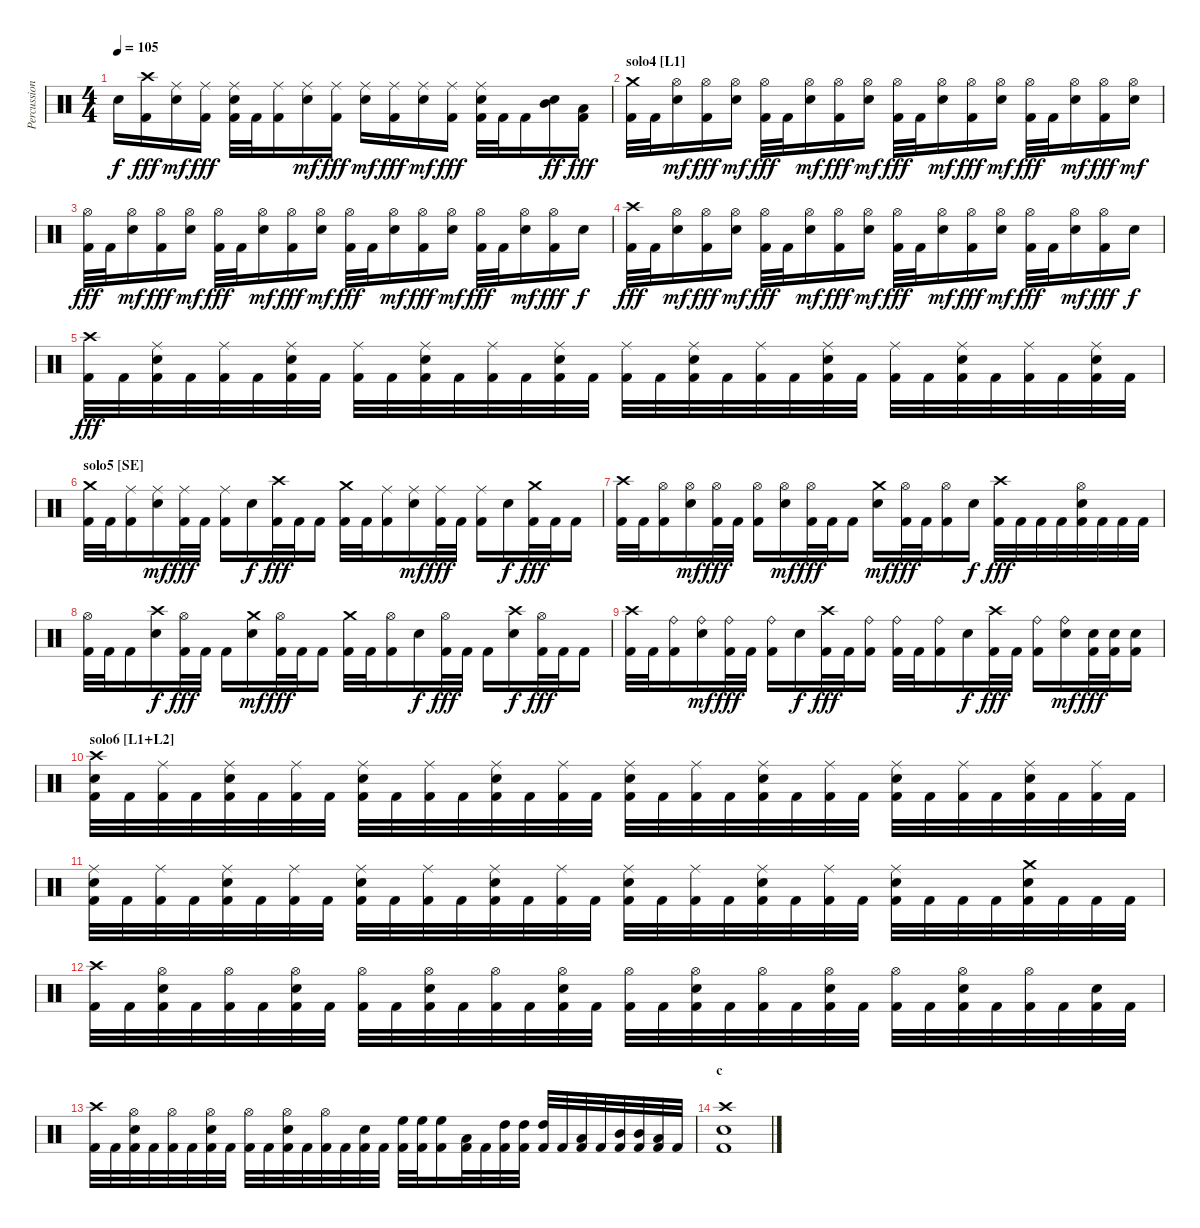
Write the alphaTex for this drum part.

\track ("Percussion" "Percussion") {instrument percussion}
\staff {score}
\articulation defaults
\ts (4 4)
\tempo 105
\clef neutral
\ks c "Snare (hit) 2".16{dy f}
("Crash high (hit)" "Kick (hit) 2").16{dy fff} ("Ride (middle)" "Snare (hit) 2").16{dy mf} ("Ride (middle)" "Kick (hit) 2").16{dy fff} ("Ride (middle)" "Snare (hit) 2" "Kick (hit) 2").32 "Kick (hit) 2".32 ("Ride (middle)" "Kick (hit) 2").16 ("Ride (middle)" "Snare (hit) 2").16{dy mf} ("Ride (middle)" "Kick (hit) 2").16{dy fff} ("Ride (middle)" "Snare (hit) 2").16{dy mf} ("Ride (middle)" "Kick (hit) 2").16{dy fff} ("Ride (middle)" "Snare (hit) 2").16{dy mf} ("Ride (middle)" "Kick (hit) 2").16{dy fff} ("Ride (middle)" "Snare (hit) 2" "Kick (hit) 2").32 "Kick (hit) 2".32 "Kick (hit) 2".16 ("Mid Tom (hit)" "Snare (hit) 2").16{dy ff} ("Low Tom (hit)" "Kick (hit) 2").16{dy fff} |
\section ("" "solo4 [L1]")
("Crash medium (hit)" "Kick (hit) 2").32 "Kick (hit) 2".32 ("Hi-Hat (open)" "Snare (hit) 2").16{dy mf} ("Hi-Hat (open)" "Kick (hit) 2").16{dy fff} ("Hi-Hat (open)" "Snare (hit) 2").16{dy mf} ("Hi-Hat (open)" "Kick (hit) 2").32{dy fff} "Kick (hit) 2".32 ("Hi-Hat (open)" "Snare (hit) 2").16{dy mf} ("Hi-Hat (open)" "Kick (hit) 2").16{dy fff} ("Hi-Hat (open)" "Snare (hit) 2").16{dy mf} ("Hi-Hat (open)" "Kick (hit) 2").32{dy fff} "Kick (hit) 2".32 ("Hi-Hat (open)" "Snare (hit) 2").16{dy mf} ("Hi-Hat (open)" "Kick (hit) 2").16{dy fff} ("Hi-Hat (open)" "Snare (hit) 2").16{dy mf} ("Hi-Hat (open)" "Kick (hit) 2").32{dy fff} "Kick (hit) 2".32 ("Hi-Hat (open)" "Snare (hit) 2").16{dy mf} ("Hi-Hat (open)" "Kick (hit) 2").16{dy fff} ("Hi-Hat (open)" "Snare (hit) 2").16{dy mf} |
("Hi-Hat (open)" "Kick (hit) 2").32{dy fff} "Kick (hit) 2".32 ("Hi-Hat (open)" "Snare (hit) 2").16{dy mf} ("Hi-Hat (open)" "Kick (hit) 2").16{dy fff} ("Hi-Hat (open)" "Snare (hit) 2").16{dy mf} ("Hi-Hat (open)" "Kick (hit) 2").32{dy fff} "Kick (hit) 2".32 ("Hi-Hat (open)" "Snare (hit) 2").16{dy mf} ("Hi-Hat (open)" "Kick (hit) 2").16{dy fff} ("Hi-Hat (open)" "Snare (hit) 2").16{dy mf} ("Hi-Hat (open)" "Kick (hit) 2").32{dy fff} "Kick (hit) 2".32 ("Hi-Hat (open)" "Snare (hit) 2").16{dy mf} ("Hi-Hat (open)" "Kick (hit) 2").16{dy fff} ("Hi-Hat (open)" "Snare (hit) 2").16{dy mf} ("Hi-Hat (open)" "Kick (hit) 2").32{dy fff} "Kick (hit) 2".32 ("Hi-Hat (open)" "Snare (hit) 2").16{dy mf} ("Hi-Hat (open)" "Kick (hit) 2").16{dy fff} "Snare (hit) 2".16{dy f} |
("Crash high (hit)" "Kick (hit) 2").32{dy fff} "Kick (hit) 2".32 ("Hi-Hat (open)" "Snare (hit) 2").16{dy mf} ("Hi-Hat (open)" "Kick (hit) 2").16{dy fff} ("Hi-Hat (open)" "Snare (hit) 2").16{dy mf} ("Hi-Hat (open)" "Kick (hit) 2").32{dy fff} "Kick (hit) 2".32 ("Hi-Hat (open)" "Snare (hit) 2").16{dy mf} ("Hi-Hat (open)" "Kick (hit) 2").16{dy fff} ("Hi-Hat (open)" "Snare (hit) 2").16{dy mf} ("Hi-Hat (open)" "Kick (hit) 2").32{dy fff} "Kick (hit) 2".32 ("Hi-Hat (open)" "Snare (hit) 2").16{dy mf} ("Hi-Hat (open)" "Kick (hit) 2").16{dy fff} ("Hi-Hat (open)" "Snare (hit) 2").16{dy mf} ("Hi-Hat (open)" "Kick (hit) 2").32{dy fff} "Kick (hit) 2".32 ("Hi-Hat (open)" "Snare (hit) 2").16{dy mf} ("Hi-Hat (open)" "Kick (hit) 2").16{dy fff} "Snare (hit) 2".16{dy f} |
("Crash high (hit)" "Kick (hit) 2").32{dy fff} "Kick (hit) 2".32 ("Ride (middle)" "Snare (hit) 2" "Kick (hit) 2").32 "Kick (hit) 2".32 ("Ride (middle)" "Kick (hit) 2").32 "Kick (hit) 2".32 ("Ride (middle)" "Snare (hit) 2" "Kick (hit) 2").32 "Kick (hit) 2".32 ("Ride (middle)" "Kick (hit) 2").32 "Kick (hit) 2".32 ("Ride (middle)" "Snare (hit) 2" "Kick (hit) 2").32 "Kick (hit) 2".32 ("Ride (middle)" "Kick (hit) 2").32 "Kick (hit) 2".32 ("Ride (middle)" "Snare (hit) 2" "Kick (hit) 2").32 "Kick (hit) 2".32 ("Ride (middle)" "Kick (hit) 2").32 "Kick (hit) 2".32 ("Ride (middle)" "Snare (hit) 2" "Kick (hit) 2").32 "Kick (hit) 2".32 ("Ride (middle)" "Kick (hit) 2").32 "Kick (hit) 2".32 ("Ride (middle)" "Snare (hit) 2" "Kick (hit) 2").32 "Kick (hit) 2".32 ("Ride (middle)" "Kick (hit) 2").32 "Kick (hit) 2".32 ("Ride (middle)" "Snare (hit) 2" "Kick (hit) 2").32 "Kick (hit) 2".32 ("Ride (middle)" "Kick (hit) 2").32 "Kick (hit) 2".32 ("Ride (middle)" "Snare (hit) 2" "Kick (hit) 2").32 "Kick (hit) 2".32 |
\section ("" "solo5 [SE]")
("Crash medium (hit)" "Kick (hit) 2").32 "Kick (hit) 2".32 ("Ride (middle)" "Kick (hit) 2").16 ("Ride (middle)" "Snare (hit) 2").16{dy mf} ("Ride (middle)" "Kick (hit) 2").32{dy fff} "Kick (hit) 2".32 ("Ride (middle)" "Kick (hit) 2").16 "Snare (hit) 2".16{dy f} ("Crash high (hit)" "Kick (hit) 2").32{dy fff} "Kick (hit) 2".32 "Kick (hit) 2".16 ("Crash medium (hit)" "Kick (hit) 2").32 "Kick (hit) 2".32 ("Ride (middle)" "Kick (hit) 2").16 ("Ride (middle)" "Snare (hit) 2").16{dy mf} ("Ride (middle)" "Kick (hit) 2").32{dy fff} "Kick (hit) 2".32 ("Ride (middle)" "Kick (hit) 2").16 "Snare (hit) 2".16{dy f} ("Crash medium (hit)" "Kick (hit) 2").32{dy fff} "Kick (hit) 2".32 "Kick (hit) 2".16 |
("Crash high (hit)" "Kick (hit) 2").32 "Kick (hit) 2".32 ("Hi-Hat (open)" "Kick (hit) 2").16 ("Hi-Hat (open)" "Snare (hit) 2").16{dy mf} ("Hi-Hat (open)" "Kick (hit) 2").32{dy fff} "Kick (hit) 2".32 ("Hi-Hat (open)" "Kick (hit) 2").16 ("Hi-Hat (open)" "Snare (hit) 2").16{dy mf} ("Hi-Hat (open)" "Kick (hit) 2").32{dy fff} "Kick (hit) 2".32 "Kick (hit) 2".16 ("Crash medium (hit)" "Snare (hit) 2").16{dy mf} ("Hi-Hat (open)" "Kick (hit) 2").32{dy fff} "Kick (hit) 2".32 ("Hi-Hat (open)" "Kick (hit) 2").16 "Snare (hit) 2".16{dy f} ("Crash high (hit)" "Kick (hit) 2").32{dy fff} "Kick (hit) 2".32 "Kick (hit) 2".32 "Kick (hit) 2".32 ("Hi-Hat (open)" "Snare (hit) 2" "Kick (hit) 2").32 "Kick (hit) 2".32 "Kick (hit) 2".32 "Kick (hit) 2".32 |
("Hi-Hat (open)" "Kick (hit) 2").32 "Kick (hit) 2".32 "Kick (hit) 2".16 ("Crash high (hit)" "Snare (hit) 2").16{dy f} ("Hi-Hat (open)" "Kick (hit) 2").32{dy fff} "Kick (hit) 2".32 "Kick (hit) 2".16 ("Crash medium (hit)" "Snare (hit) 2").16{dy mf} ("Hi-Hat (open)" "Kick (hit) 2").32{dy fff} "Kick (hit) 2".32 "Kick (hit) 2".16 ("Crash medium (hit)" "Kick (hit) 2").32 "Kick (hit) 2".32 ("Hi-Hat (open)" "Kick (hit) 2").16 "Snare (hit) 2".16{dy f} ("Hi-Hat (open)" "Kick (hit) 2").32{dy fff} "Kick (hit) 2".32 "Kick (hit) 2".16 ("Crash high (hit)" "Snare (hit) 2").16{dy f} ("Hi-Hat (open)" "Kick (hit) 2").32{dy fff} "Kick (hit) 2".32 "Kick (hit) 2".16 |
("Crash high (hit)" "Kick (hit) 2").32 "Kick (hit) 2".32 ("Ride (bell)" "Kick (hit) 2").16 ("Ride (bell)" "Snare (hit) 2").16{dy mf} ("Ride (bell)" "Kick (hit) 2").32{dy fff} "Kick (hit) 2".32 ("Ride (bell)" "Kick (hit) 2").16 "Snare (hit) 2".16{dy f} ("Crash high (hit)" "Kick (hit) 2").32{dy fff} "Kick (hit) 2".32 ("Ride (bell)" "Kick (hit) 2").16 ("Ride (bell)" "Kick (hit) 2").32 "Kick (hit) 2".32 ("Ride (bell)" "Kick (hit) 2").16 "Snare (hit) 2".16{dy f} ("Crash high (hit)" "Kick (hit) 2").32{dy fff} "Kick (hit) 2".32 ("Ride (bell)" "Kick (hit) 2").16 ("Ride (bell)" "Snare (hit) 2").16{dy mf} ("Snare (hit) 2" "Kick (hit) 2").32{dy fff} ("Snare (hit) 2" "Kick (hit) 2").32 ("Snare (hit) 2" "Kick (hit) 2").16 |
\section ("" "solo6 [L1+L2]")
("Crash high (hit)" "Snare (hit) 2" "Kick (hit) 2").32 "Kick (hit) 2".32 ("Ride (middle)" "Kick (hit) 2").32 "Kick (hit) 2".32 ("Ride (middle)" "Snare (hit) 2" "Kick (hit) 2").32 "Kick (hit) 2".32 ("Ride (middle)" "Kick (hit) 2").32 "Kick (hit) 2".32 ("Ride (middle)" "Snare (hit) 2" "Kick (hit) 2").32 "Kick (hit) 2".32 ("Ride (middle)" "Kick (hit) 2").32 "Kick (hit) 2".32 ("Ride (middle)" "Snare (hit) 2" "Kick (hit) 2").32 "Kick (hit) 2".32 ("Ride (middle)" "Kick (hit) 2").32 "Kick (hit) 2".32 ("Ride (middle)" "Snare (hit) 2" "Kick (hit) 2").32 "Kick (hit) 2".32 ("Ride (middle)" "Kick (hit) 2").32 "Kick (hit) 2".32 ("Ride (middle)" "Snare (hit) 2" "Kick (hit) 2").32 "Kick (hit) 2".32 ("Ride (middle)" "Kick (hit) 2").32 "Kick (hit) 2".32 ("Ride (middle)" "Snare (hit) 2" "Kick (hit) 2").32 "Kick (hit) 2".32 ("Ride (middle)" "Kick (hit) 2").32 "Kick (hit) 2".32 ("Ride (middle)" "Snare (hit) 2" "Kick (hit) 2").32 "Kick (hit) 2".32 ("Ride (middle)" "Kick (hit) 2").32 "Kick (hit) 2".32 |
("Ride (middle)" "Snare (hit) 2" "Kick (hit) 2").32 "Kick (hit) 2".32 ("Ride (middle)" "Kick (hit) 2").32 "Kick (hit) 2".32 ("Ride (middle)" "Snare (hit) 2" "Kick (hit) 2").32 "Kick (hit) 2".32 ("Ride (middle)" "Kick (hit) 2").32 "Kick (hit) 2".32 ("Ride (middle)" "Snare (hit) 2" "Kick (hit) 2").32 "Kick (hit) 2".32 ("Ride (middle)" "Kick (hit) 2").32 "Kick (hit) 2".32 ("Ride (middle)" "Snare (hit) 2" "Kick (hit) 2").32 "Kick (hit) 2".32 ("Ride (middle)" "Kick (hit) 2").32 "Kick (hit) 2".32 ("Ride (middle)" "Snare (hit) 2" "Kick (hit) 2").32 "Kick (hit) 2".32 ("Ride (middle)" "Kick (hit) 2").32 "Kick (hit) 2".32 ("Ride (middle)" "Snare (hit) 2" "Kick (hit) 2").32 "Kick (hit) 2".32 ("Ride (middle)" "Kick (hit) 2").32 "Kick (hit) 2".32 ("Ride (middle)" "Snare (hit) 2" "Kick (hit) 2").32 "Kick (hit) 2".32 "Kick (hit) 2".32 "Kick (hit) 2".32 ("Crash medium (hit)" "Snare (hit) 2" "Kick (hit) 2").32 "Kick (hit) 2".32 "Kick (hit) 2".32 "Kick (hit) 2".32 |
("Crash high (hit)" "Kick (hit) 2").32 "Kick (hit) 2".32 ("Hi-Hat (open)" "Snare (hit) 2" "Kick (hit) 2").32 "Kick (hit) 2".32 ("Hi-Hat (open)" "Kick (hit) 2").32 "Kick (hit) 2".32 ("Hi-Hat (open)" "Snare (hit) 2" "Kick (hit) 2").32 "Kick (hit) 2".32 ("Hi-Hat (open)" "Kick (hit) 2").32 "Kick (hit) 2".32 ("Hi-Hat (open)" "Snare (hit) 2" "Kick (hit) 2").32 "Kick (hit) 2".32 ("Hi-Hat (open)" "Kick (hit) 2").32 "Kick (hit) 2".32 ("Hi-Hat (open)" "Snare (hit) 2" "Kick (hit) 2").32 "Kick (hit) 2".32 ("Hi-Hat (open)" "Kick (hit) 2").32 "Kick (hit) 2".32 ("Hi-Hat (open)" "Snare (hit) 2" "Kick (hit) 2").32 "Kick (hit) 2".32 ("Hi-Hat (open)" "Kick (hit) 2").32 "Kick (hit) 2".32 ("Hi-Hat (open)" "Snare (hit) 2" "Kick (hit) 2").32 "Kick (hit) 2".32 ("Hi-Hat (open)" "Kick (hit) 2").32 "Kick (hit) 2".32 ("Hi-Hat (open)" "Snare (hit) 2" "Kick (hit) 2").32 "Kick (hit) 2".32 ("Hi-Hat (open)" "Kick (hit) 2").32 "Kick (hit) 2".32 ("Snare (hit) 2" "Kick (hit) 2").32 "Kick (hit) 2".32 |
("Crash high (hit)" "Kick (hit) 2").32 "Kick (hit) 2".32 ("Hi-Hat (open)" "Snare (hit) 2" "Kick (hit) 2").32 "Kick (hit) 2".32 ("Hi-Hat (open)" "Kick (hit) 2").32 "Kick (hit) 2".32 ("Hi-Hat (open)" "Snare (hit) 2" "Kick (hit) 2").32 "Kick (hit) 2".32 ("Hi-Hat (open)" "Kick (hit) 2").32 "Kick (hit) 2".32 ("Hi-Hat (open)" "Snare (hit) 2" "Kick (hit) 2").32 "Kick (hit) 2".32 ("Hi-Hat (open)" "Kick (hit) 2").32 "Kick (hit) 2".32 ("Snare (hit) 2" "Kick (hit) 2").32 "Kick (hit) 2".32 ("High Floor Tom (hit)" "Kick (hit) 2").32 ("High Floor Tom (hit)" "Kick (hit) 2").32 ("High Floor Tom (hit)" "Kick (hit) 2").16 ("Low Floor Tom (hit)" "Kick (hit) 2").32 "Kick (hit) 2".32 ("High Tom (hit)" "Kick (hit) 2").32 ("High Tom (hit)" "Kick (hit) 2").32 ("High Tom (hit)" "Kick (hit) 2").32 "Kick (hit) 2".32 ("Low Floor Tom (hit)" "Kick (hit) 2").32 "Kick (hit) 2".32 ("Mid Tom (hit)" "Kick (hit) 2").32 ("Mid Tom (hit)" "Kick (hit) 2").32 ("Low Tom (hit)" "Kick (hit) 2").32 "Kick (hit) 2".32 |
\section ("" "c")
("Crash high (hit)" "Snare (hit) 2" "Kick (hit) 2").1
